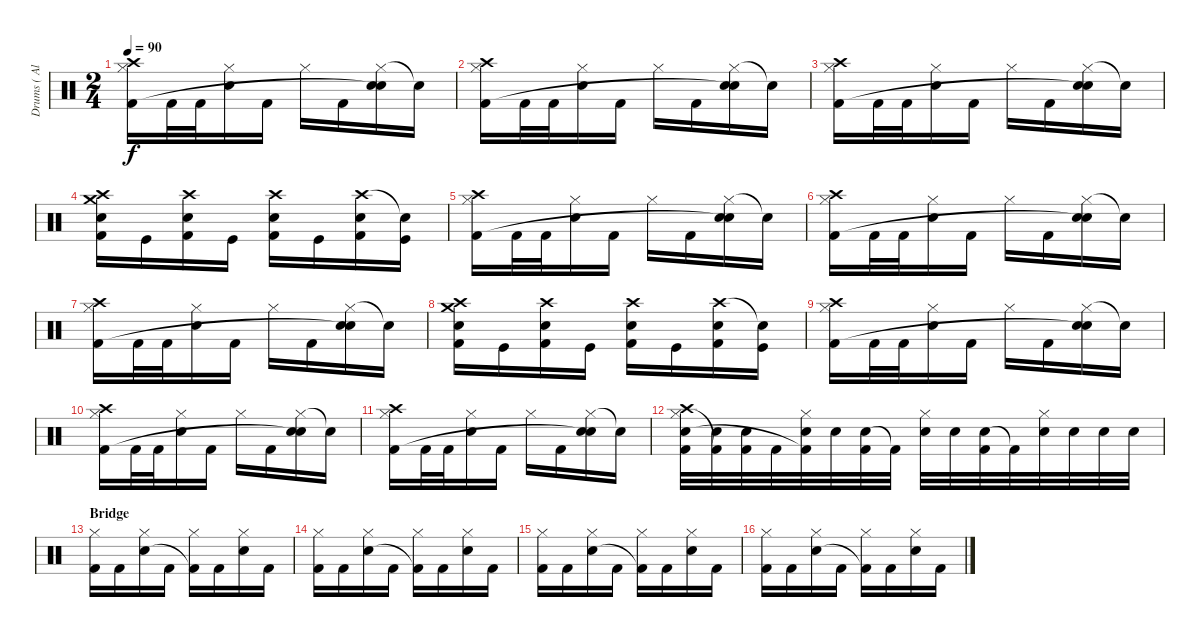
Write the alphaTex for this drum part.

\track ("Drums ( Alex Holzwarth)" "Drums ( Al") {instrument percussion}
\staff {score}
\articulation defaults
\ts (2 4)
\tempo 90
\clef neutral
\ks c
("Crash high (hit)" "Hi-Hat (closed)" "Kick (hit) 2").16{dy f} "Kick (hit) 2".32 "Kick (hit) 2".32 ("Hi-Hat (closed)" "Electric Snare (hit)").16 "Kick (hit) 2".16 "Hi-Hat (closed)".16 "Kick (hit) 2".16 ("Hi-Hat (closed)" "Electric Snare (hit)" "Snare (hit)"{t}).16 "Snare (hit)"{t}.16 |
("Crash high (hit)" "Hi-Hat (closed)" "Kick (hit) 2").16 "Kick (hit) 2".32 "Kick (hit) 2".32 ("Hi-Hat (closed)" "Electric Snare (hit)").16 "Kick (hit) 2".16 "Hi-Hat (closed)".16 "Kick (hit) 2".16 ("Hi-Hat (closed)" "Electric Snare (hit)" "Snare (hit)"{t}).16 "Snare (hit)"{t}.16 |
("Crash high (hit)" "Hi-Hat (closed)" "Kick (hit) 2").16 "Kick (hit) 2".32 "Kick (hit) 2".32 ("Hi-Hat (closed)" "Electric Snare (hit)").16 "Kick (hit) 2".16 "Hi-Hat (closed)".16 "Kick (hit) 2".16 ("Hi-Hat (closed)" "Electric Snare (hit)" "Snare (hit)"{t}).16 "Snare (hit)"{t}.16 |
("Crash high (hit)" "Crash medium (hit)" "Snare (hit) 2" "Kick (hit) 2").16 "Kick (hit)".16 ("Crash high (hit)" "Snare (hit) 2" "Kick (hit) 2").16 "Kick (hit)".16 ("Crash high (hit)" "Snare (hit) 2" "Kick (hit) 2").16 "Kick (hit)".16 ("Crash high (hit)" "Snare (hit) 2" "Kick (hit) 2").16 ("Snare (hit)"{t} "Kick (hit)").16 |
("Crash high (hit)" "Hi-Hat (closed)" "Kick (hit) 2").16 "Kick (hit) 2".32 "Kick (hit) 2".32 ("Hi-Hat (closed)" "Electric Snare (hit)").16 "Kick (hit) 2".16 "Hi-Hat (closed)".16 "Kick (hit) 2".16 ("Hi-Hat (closed)" "Electric Snare (hit)" "Snare (hit)"{t}).16 "Snare (hit)"{t}.16 |
("Crash high (hit)" "Hi-Hat (closed)" "Kick (hit) 2").16 "Kick (hit) 2".32 "Kick (hit) 2".32 ("Hi-Hat (closed)" "Electric Snare (hit)").16 "Kick (hit) 2".16 "Hi-Hat (closed)".16 "Kick (hit) 2".16 ("Hi-Hat (closed)" "Electric Snare (hit)" "Snare (hit)"{t}).16 "Snare (hit)"{t}.16 |
("Crash high (hit)" "Hi-Hat (closed)" "Kick (hit) 2").16 "Kick (hit) 2".32 "Kick (hit) 2".32 ("Hi-Hat (closed)" "Electric Snare (hit)").16 "Kick (hit) 2".16 "Hi-Hat (closed)".16 "Kick (hit) 2".16 ("Hi-Hat (closed)" "Electric Snare (hit)" "Snare (hit)"{t}).16 "Snare (hit)"{t}.16 |
("Crash high (hit)" "Crash medium (hit)" "Snare (hit) 2" "Kick (hit) 2").16 "Kick (hit)".16 ("Crash high (hit)" "Snare (hit) 2" "Kick (hit) 2").16 "Kick (hit)".16 ("Crash high (hit)" "Snare (hit) 2" "Kick (hit) 2").16 "Kick (hit)".16 ("Crash high (hit)" "Snare (hit) 2" "Kick (hit) 2").16 ("Snare (hit)"{t} "Kick (hit)").16 |
("Crash high (hit)" "Hi-Hat (closed)" "Kick (hit) 2").16 "Kick (hit) 2".32 "Kick (hit) 2".32 ("Hi-Hat (closed)" "Electric Snare (hit)").16 "Kick (hit) 2".16 "Hi-Hat (closed)".16 "Kick (hit) 2".16 ("Hi-Hat (closed)" "Electric Snare (hit)" "Snare (hit)"{t}).16 "Snare (hit)"{t}.16 |
("Crash high (hit)" "Hi-Hat (closed)" "Kick (hit) 2").16 "Kick (hit) 2".32 "Kick (hit) 2".32 ("Hi-Hat (closed)" "Electric Snare (hit)").16 "Kick (hit) 2".16 "Hi-Hat (closed)".16 "Kick (hit) 2".16 ("Hi-Hat (closed)" "Electric Snare (hit)" "Snare (hit)"{t}).16 "Snare (hit)"{t}.16 |
("Crash high (hit)" "Hi-Hat (closed)" "Kick (hit) 2").16 "Kick (hit) 2".32 "Kick (hit) 2".32 ("Hi-Hat (closed)" "Electric Snare (hit)").16 "Kick (hit) 2".16 "Hi-Hat (closed)".16 "Kick (hit) 2".16 ("Hi-Hat (closed)" "Electric Snare (hit)" "Snare (hit)"{t}).16 "Snare (hit)"{t}.16 |
("Crash high (hit)" "Hi-Hat (closed)" "Electric Snare (hit)" "Kick (hit) 2").32 ("Electric Snare (hit)" "Kick (hit) 2"{t}).32 ("Electric Snare (hit)" "Kick (hit) 2").32 "Kick (hit) 2".32 ("Hi-Hat (closed)" "Electric Snare (hit)" "Kick (hit) 2"{t}).32 "Electric Snare (hit)".32 ("Electric Snare (hit)" "Kick (hit) 2").32 "Kick (hit) 2"{t}.32 ("Hi-Hat (closed)" "Electric Snare (hit)").32 "Electric Snare (hit)".32 ("Electric Snare (hit)" "Kick (hit) 2").32 "Kick (hit) 2"{t}.32 ("Hi-Hat (closed)" "Electric Snare (hit)").32 "Electric Snare (hit)".32 "Electric Snare (hit)".32 "Electric Snare (hit)".32 |
\section ("" "Bridge")
("Hi-Hat (closed)" "Kick (hit) 2").16 "Kick (hit) 2".16 ("Hi-Hat (closed)" "Electric Snare (hit)").16 "Kick (hit) 2".16 ("Hi-Hat (closed)" "Kick (hit) 2"{t}).16 "Kick (hit) 2".16 ("Hi-Hat (closed)" "Electric Snare (hit)").16 "Kick (hit) 2".16 |
("Hi-Hat (closed)" "Kick (hit) 2").16 "Kick (hit) 2".16 ("Hi-Hat (closed)" "Electric Snare (hit)").16 "Kick (hit) 2".16 ("Hi-Hat (closed)" "Kick (hit) 2"{t}).16 "Kick (hit) 2".16 ("Hi-Hat (closed)" "Electric Snare (hit)").16 "Kick (hit) 2".16 |
("Hi-Hat (closed)" "Kick (hit) 2").16 "Kick (hit) 2".16 ("Hi-Hat (closed)" "Electric Snare (hit)").16 "Kick (hit) 2".16 ("Hi-Hat (closed)" "Kick (hit) 2"{t}).16 "Kick (hit) 2".16 ("Hi-Hat (closed)" "Electric Snare (hit)").16 "Kick (hit) 2".16 |
("Hi-Hat (closed)" "Kick (hit) 2").16 "Kick (hit) 2".16 ("Hi-Hat (closed)" "Electric Snare (hit)").16 "Kick (hit) 2".16 ("Hi-Hat (closed)" "Kick (hit) 2"{t}).16 "Kick (hit) 2".16 ("Hi-Hat (closed)" "Electric Snare (hit)").16 "Kick (hit) 2".16
